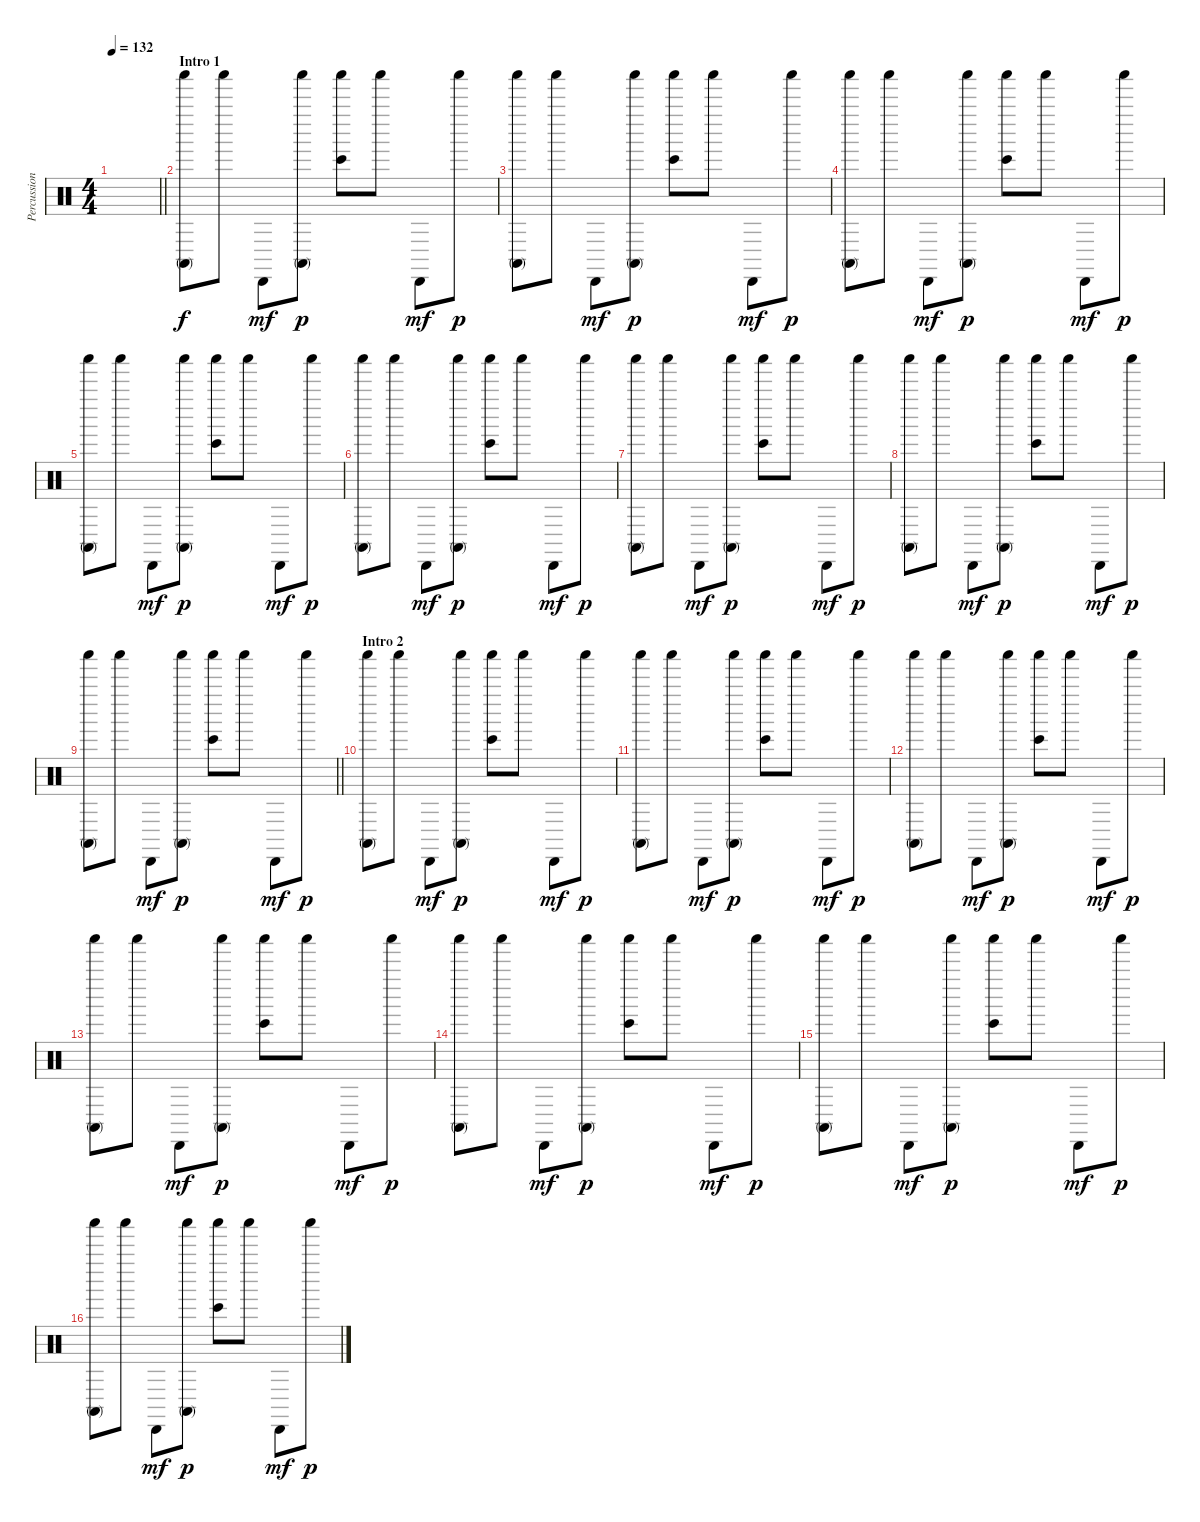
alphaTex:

\track ("Percussions" "Percussion") {instrument percussion}
\staff {score}
\articulation defaults
\ts (4 4)
\tempo 132
\clef neutral
\barLineRight lightlight
\ks c
|
\section ("" "Intro 1")
("Shaker (hit)" "Conga high (mute)").8 "Shaker (hit)".8 "Cabasa (hit)".8{dy mf} ("Shaker (hit)" "Conga high (mute)").8{dy p} ("Shaker (hit)" "Bongo High (hit)").8 "Shaker (hit)".8 "Cabasa (hit)".8{dy mf} "Shaker (hit)".8{dy p} |
("Shaker (hit)" "Conga high (mute)").8 "Shaker (hit)".8 "Cabasa (hit)".8{dy mf} ("Shaker (hit)" "Conga high (mute)").8{dy p} ("Shaker (hit)" "Bongo High (hit)").8 "Shaker (hit)".8 "Cabasa (hit)".8{dy mf} "Shaker (hit)".8{dy p} |
("Shaker (hit)" "Conga high (mute)").8 "Shaker (hit)".8 "Cabasa (hit)".8{dy mf} ("Shaker (hit)" "Conga high (mute)").8{dy p} ("Shaker (hit)" "Bongo High (hit)").8 "Shaker (hit)".8 "Cabasa (hit)".8{dy mf} "Shaker (hit)".8{dy p} |
("Shaker (hit)" "Conga high (mute)").8 "Shaker (hit)".8 "Cabasa (hit)".8{dy mf} ("Shaker (hit)" "Conga high (mute)").8{dy p} ("Shaker (hit)" "Bongo High (hit)").8 "Shaker (hit)".8 "Cabasa (hit)".8{dy mf} "Shaker (hit)".8{dy p} |
("Shaker (hit)" "Conga high (mute)").8 "Shaker (hit)".8 "Cabasa (hit)".8{dy mf} ("Shaker (hit)" "Conga high (mute)").8{dy p} ("Shaker (hit)" "Bongo High (hit)").8 "Shaker (hit)".8 "Cabasa (hit)".8{dy mf} "Shaker (hit)".8{dy p} |
("Shaker (hit)" "Conga high (mute)").8 "Shaker (hit)".8 "Cabasa (hit)".8{dy mf} ("Shaker (hit)" "Conga high (mute)").8{dy p} ("Shaker (hit)" "Bongo High (hit)").8 "Shaker (hit)".8 "Cabasa (hit)".8{dy mf} "Shaker (hit)".8{dy p} |
("Shaker (hit)" "Conga high (mute)").8 "Shaker (hit)".8 "Cabasa (hit)".8{dy mf} ("Shaker (hit)" "Conga high (mute)").8{dy p} ("Shaker (hit)" "Bongo High (hit)").8 "Shaker (hit)".8 "Cabasa (hit)".8{dy mf} "Shaker (hit)".8{dy p} |
\barLineRight lightlight
("Shaker (hit)" "Conga high (mute)").8 "Shaker (hit)".8 "Cabasa (hit)".8{dy mf} ("Shaker (hit)" "Conga high (mute)").8{dy p} ("Shaker (hit)" "Bongo High (hit)").8 "Shaker (hit)".8 "Cabasa (hit)".8{dy mf} "Shaker (hit)".8{dy p} |
\section ("" "Intro 2")
("Shaker (hit)" "Conga high (mute)").8 "Shaker (hit)".8 "Cabasa (hit)".8{dy mf} ("Shaker (hit)" "Conga high (mute)").8{dy p} ("Shaker (hit)" "Bongo High (hit)").8 "Shaker (hit)".8 "Cabasa (hit)".8{dy mf} "Shaker (hit)".8{dy p} |
("Shaker (hit)" "Conga high (mute)").8 "Shaker (hit)".8 "Cabasa (hit)".8{dy mf} ("Shaker (hit)" "Conga high (mute)").8{dy p} ("Shaker (hit)" "Bongo High (hit)").8 "Shaker (hit)".8 "Cabasa (hit)".8{dy mf} "Shaker (hit)".8{dy p} |
("Shaker (hit)" "Conga high (mute)").8 "Shaker (hit)".8 "Cabasa (hit)".8{dy mf} ("Shaker (hit)" "Conga high (mute)").8{dy p} ("Shaker (hit)" "Bongo High (hit)").8 "Shaker (hit)".8 "Cabasa (hit)".8{dy mf} "Shaker (hit)".8{dy p} |
("Shaker (hit)" "Conga high (mute)").8 "Shaker (hit)".8 "Cabasa (hit)".8{dy mf} ("Shaker (hit)" "Conga high (mute)").8{dy p} ("Shaker (hit)" "Bongo High (hit)").8 "Shaker (hit)".8 "Cabasa (hit)".8{dy mf} "Shaker (hit)".8{dy p} |
("Shaker (hit)" "Conga high (mute)").8 "Shaker (hit)".8 "Cabasa (hit)".8{dy mf} ("Shaker (hit)" "Conga high (mute)").8{dy p} ("Shaker (hit)" "Bongo High (hit)").8 "Shaker (hit)".8 "Cabasa (hit)".8{dy mf} "Shaker (hit)".8{dy p} |
("Shaker (hit)" "Conga high (mute)").8 "Shaker (hit)".8 "Cabasa (hit)".8{dy mf} ("Shaker (hit)" "Conga high (mute)").8{dy p} ("Shaker (hit)" "Bongo High (hit)").8 "Shaker (hit)".8 "Cabasa (hit)".8{dy mf} "Shaker (hit)".8{dy p} |
("Shaker (hit)" "Conga high (mute)").8 "Shaker (hit)".8 "Cabasa (hit)".8{dy mf} ("Shaker (hit)" "Conga high (mute)").8{dy p} ("Shaker (hit)" "Bongo High (hit)").8 "Shaker (hit)".8 "Cabasa (hit)".8{dy mf} "Shaker (hit)".8{dy p}
